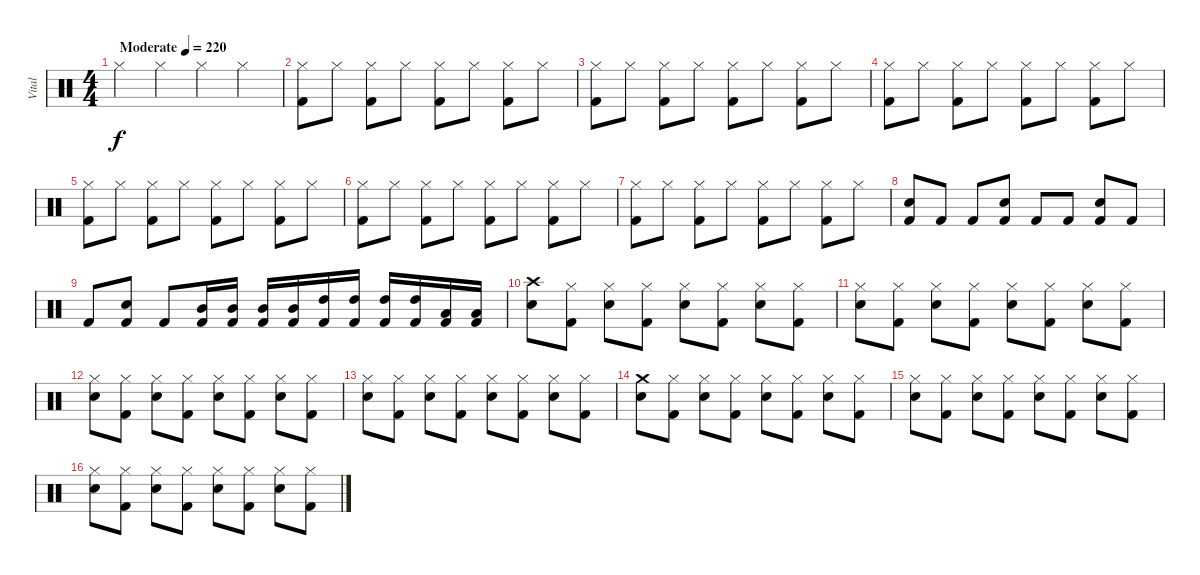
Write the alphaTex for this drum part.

\track ("Vital" "Vital") {instrument percussion}
\staff {score}
\articulation defaults
\ts (4 4)
\tempo (220 "Moderate")
\clef neutral
\ks c "Hi-Hat (closed)".4{dy f} "Hi-Hat (closed)".4 "Hi-Hat (closed)".4 "Hi-Hat (closed)".4
|
("Hi-Hat (closed)" "Kick (hit) 2").8 "Hi-Hat (closed)".8 ("Hi-Hat (closed)" "Kick (hit) 2").8 "Hi-Hat (closed)".8 ("Hi-Hat (closed)" "Kick (hit) 2").8 "Hi-Hat (closed)".8 ("Hi-Hat (closed)" "Kick (hit) 2").8 "Hi-Hat (closed)".8 |
("Hi-Hat (closed)" "Kick (hit) 2").8 "Hi-Hat (closed)".8 ("Hi-Hat (closed)" "Kick (hit) 2").8 "Hi-Hat (closed)".8 ("Hi-Hat (closed)" "Kick (hit) 2").8 "Hi-Hat (closed)".8 ("Hi-Hat (closed)" "Kick (hit) 2").8 "Hi-Hat (closed)".8 |
("Hi-Hat (closed)" "Kick (hit) 2").8 "Hi-Hat (closed)".8 ("Hi-Hat (closed)" "Kick (hit) 2").8 "Hi-Hat (closed)".8 ("Hi-Hat (closed)" "Kick (hit) 2").8 "Hi-Hat (closed)".8 ("Hi-Hat (closed)" "Kick (hit) 2").8 "Hi-Hat (closed)".8 |
("Hi-Hat (closed)" "Kick (hit) 2").8 "Hi-Hat (closed)".8 ("Hi-Hat (closed)" "Kick (hit) 2").8 "Hi-Hat (closed)".8 ("Hi-Hat (closed)" "Kick (hit) 2").8 "Hi-Hat (closed)".8 ("Hi-Hat (closed)" "Kick (hit) 2").8 "Hi-Hat (closed)".8 |
("Hi-Hat (closed)" "Kick (hit) 2").8 "Hi-Hat (closed)".8 ("Hi-Hat (closed)" "Kick (hit) 2").8 "Hi-Hat (closed)".8 ("Hi-Hat (closed)" "Kick (hit) 2").8 "Hi-Hat (closed)".8 ("Hi-Hat (closed)" "Kick (hit) 2").8 "Hi-Hat (closed)".8 |
("Hi-Hat (closed)" "Kick (hit) 2").8 "Hi-Hat (closed)".8 ("Hi-Hat (closed)" "Kick (hit) 2").8 "Hi-Hat (closed)".8 ("Hi-Hat (closed)" "Kick (hit) 2").8 "Hi-Hat (closed)".8 ("Hi-Hat (closed)" "Kick (hit) 2").8 "Hi-Hat (closed)".8 |
("Snare (hit) 2" "Kick (hit) 2").8 "Kick (hit) 2".8 "Kick (hit) 2".8 ("Snare (hit) 2" "Kick (hit) 2").8 "Kick (hit) 2".8 "Kick (hit) 2".8 ("Snare (hit) 2" "Kick (hit) 2").8 "Kick (hit) 2".8 |
"Kick (hit) 2".8 ("Snare (hit) 2" "Kick (hit) 2").8 "Kick (hit) 2".8 ("Mid Tom (hit)" "Kick (hit) 2").16 ("Mid Tom (hit)" "Kick (hit) 2").16 ("Mid Tom (hit)" "Kick (hit) 2").16 ("Mid Tom (hit)" "Kick (hit) 2").16 ("High Tom (hit)" "Kick (hit) 2").16 ("High Tom (hit)" "Kick (hit) 2").16 ("High Tom (hit)" "Kick (hit) 2").16 ("High Tom (hit)" "Kick (hit) 2").16 ("Low Tom (hit)" "Kick (hit) 2").16 ("Low Tom (hit)" "Kick (hit) 2").16 |
("Crash high (hit)" "Snare (hit) 2").8 ("Hi-Hat (closed)" "Kick (hit) 2").8 ("Hi-Hat (closed)" "Snare (hit) 2").8 ("Hi-Hat (closed)" "Kick (hit) 2").8 ("Hi-Hat (closed)" "Snare (hit) 2").8 ("Hi-Hat (closed)" "Kick (hit) 2").8 ("Hi-Hat (closed)" "Snare (hit) 2").8 ("Hi-Hat (closed)" "Kick (hit) 2").8 |
("Hi-Hat (closed)" "Snare (hit) 2").8 ("Hi-Hat (closed)" "Kick (hit) 2").8 ("Hi-Hat (closed)" "Snare (hit) 2").8 ("Hi-Hat (closed)" "Kick (hit) 2").8 ("Hi-Hat (closed)" "Snare (hit) 2").8 ("Hi-Hat (closed)" "Kick (hit) 2").8 ("Hi-Hat (closed)" "Snare (hit) 2").8 ("Hi-Hat (closed)" "Kick (hit) 2").8 |
("Hi-Hat (closed)" "Snare (hit) 2").8 ("Hi-Hat (closed)" "Kick (hit) 2").8 ("Hi-Hat (closed)" "Snare (hit) 2").8 ("Hi-Hat (closed)" "Kick (hit) 2").8 ("Hi-Hat (closed)" "Snare (hit) 2").8 ("Hi-Hat (closed)" "Kick (hit) 2").8 ("Hi-Hat (closed)" "Snare (hit) 2").8 ("Hi-Hat (closed)" "Kick (hit) 2").8 |
("Hi-Hat (closed)" "Snare (hit) 2").8 ("Hi-Hat (closed)" "Kick (hit) 2").8 ("Hi-Hat (closed)" "Snare (hit) 2").8 ("Hi-Hat (closed)" "Kick (hit) 2").8 ("Hi-Hat (closed)" "Snare (hit) 2").8 ("Hi-Hat (closed)" "Kick (hit) 2").8 ("Hi-Hat (closed)" "Snare (hit) 2").8 ("Hi-Hat (closed)" "Kick (hit) 2").8 |
("Crash medium (hit)" "Snare (hit) 2").8 ("Hi-Hat (closed)" "Kick (hit) 2").8 ("Hi-Hat (closed)" "Snare (hit) 2").8 ("Hi-Hat (closed)" "Kick (hit) 2").8 ("Hi-Hat (closed)" "Snare (hit) 2").8 ("Hi-Hat (closed)" "Kick (hit) 2").8 ("Hi-Hat (closed)" "Snare (hit) 2").8 ("Hi-Hat (closed)" "Kick (hit) 2").8 |
("Hi-Hat (closed)" "Snare (hit) 2").8 ("Hi-Hat (closed)" "Kick (hit) 2").8 ("Hi-Hat (closed)" "Snare (hit) 2").8 ("Hi-Hat (closed)" "Kick (hit) 2").8 ("Hi-Hat (closed)" "Snare (hit) 2").8 ("Hi-Hat (closed)" "Kick (hit) 2").8 ("Hi-Hat (closed)" "Snare (hit) 2").8 ("Hi-Hat (closed)" "Kick (hit) 2").8 |
("Hi-Hat (closed)" "Snare (hit) 2").8 ("Hi-Hat (closed)" "Kick (hit) 2").8 ("Hi-Hat (closed)" "Snare (hit) 2").8 ("Hi-Hat (closed)" "Kick (hit) 2").8 ("Hi-Hat (closed)" "Snare (hit) 2").8 ("Hi-Hat (closed)" "Kick (hit) 2").8 ("Hi-Hat (closed)" "Snare (hit) 2").8 ("Hi-Hat (closed)" "Kick (hit) 2").8
